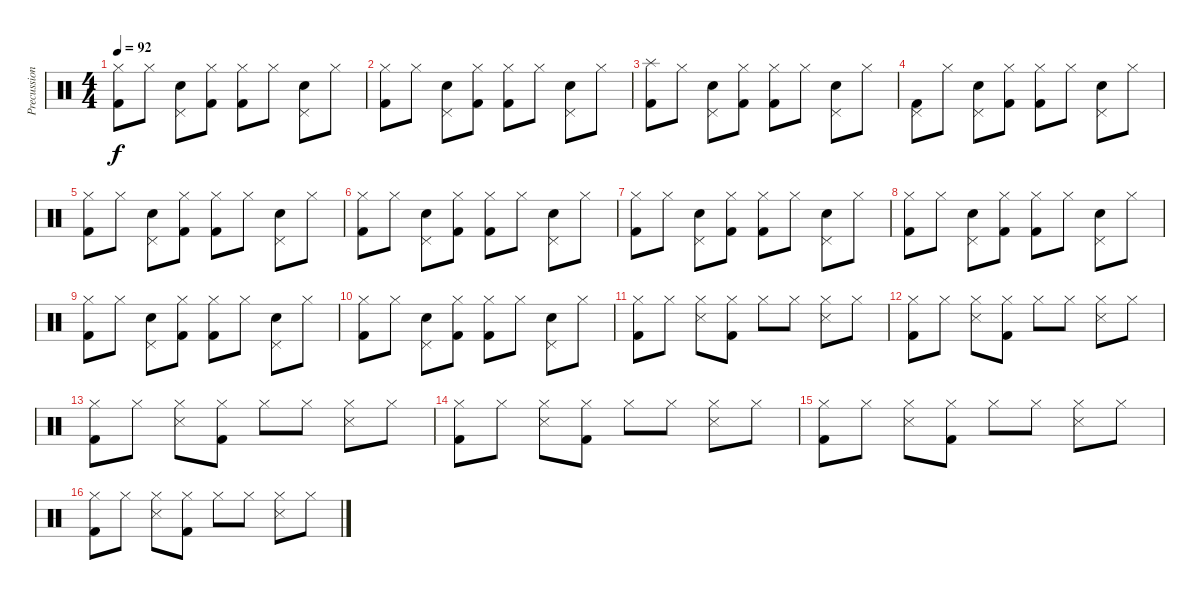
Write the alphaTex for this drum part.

\track ("Precussion" "Precussion") {instrument percussion}
\staff {score}
\articulation defaults
\ts (4 4)
\tempo 92
\clef neutral
\ks c
("Hi-Hat (closed)" "Kick (hit) 2").8{dy f} "Hi-Hat (closed)".8 ("Pedal Hi-Hat (hit)" "Snare (hit) 2").8 ("Hi-Hat (closed)" "Kick (hit) 2").8 ("Hi-Hat (closed)" "Kick (hit) 2").8 "Hi-Hat (closed)".8 ("Pedal Hi-Hat (hit)" "Snare (hit) 2").8 "Hi-Hat (closed)".8 |
("Hi-Hat (closed)" "Kick (hit) 2").8 "Hi-Hat (closed)".8 ("Pedal Hi-Hat (hit)" "Snare (hit) 2").8 ("Hi-Hat (closed)" "Kick (hit) 2").8 ("Hi-Hat (closed)" "Kick (hit) 2").8 "Hi-Hat (closed)".8 ("Pedal Hi-Hat (hit)" "Snare (hit) 2").8 "Hi-Hat (closed)".8 |
("Splash (hit)" "Kick (hit) 2").8 "Hi-Hat (closed)".8 ("Pedal Hi-Hat (hit)" "Snare (hit) 2").8 ("Hi-Hat (closed)" "Kick (hit) 2").8 ("Hi-Hat (closed)" "Kick (hit) 2").8 "Hi-Hat (closed)".8 ("Pedal Hi-Hat (hit)" "Snare (hit) 2").8 "Hi-Hat (closed)".8 |
("Pedal Hi-Hat (hit)" "Kick (hit) 2").8 "Hi-Hat (closed)".8 ("Pedal Hi-Hat (hit)" "Snare (hit) 2").8 ("Hi-Hat (closed)" "Kick (hit) 2").8 ("Hi-Hat (closed)" "Kick (hit) 2").8 "Hi-Hat (closed)".8 ("Pedal Hi-Hat (hit)" "Snare (hit) 2").8 "Hi-Hat (closed)".8 |
("Hi-Hat (closed)" "Kick (hit) 2").8 "Hi-Hat (closed)".8 ("Pedal Hi-Hat (hit)" "Snare (hit) 2").8 ("Hi-Hat (closed)" "Kick (hit) 2").8 ("Hi-Hat (closed)" "Kick (hit) 2").8 "Hi-Hat (closed)".8 ("Pedal Hi-Hat (hit)" "Snare (hit) 2").8 "Hi-Hat (closed)".8 |
("Hi-Hat (closed)" "Kick (hit) 2").8 "Hi-Hat (closed)".8 ("Pedal Hi-Hat (hit)" "Snare (hit) 2").8 ("Hi-Hat (closed)" "Kick (hit) 2").8 ("Hi-Hat (closed)" "Kick (hit) 2").8 "Hi-Hat (closed)".8 ("Pedal Hi-Hat (hit)" "Snare (hit) 2").8 "Hi-Hat (closed)".8 |
("Hi-Hat (closed)" "Kick (hit) 2").8 "Hi-Hat (closed)".8 ("Pedal Hi-Hat (hit)" "Snare (hit) 2").8 ("Hi-Hat (closed)" "Kick (hit) 2").8 ("Hi-Hat (closed)" "Kick (hit) 2").8 "Hi-Hat (closed)".8 ("Pedal Hi-Hat (hit)" "Snare (hit) 2").8 "Hi-Hat (closed)".8 |
("Hi-Hat (closed)" "Kick (hit) 2").8 "Hi-Hat (closed)".8 ("Pedal Hi-Hat (hit)" "Snare (hit) 2").8 ("Hi-Hat (closed)" "Kick (hit) 2").8 ("Hi-Hat (closed)" "Kick (hit) 2").8 "Hi-Hat (closed)".8 ("Pedal Hi-Hat (hit)" "Snare (hit) 2").8 "Hi-Hat (closed)".8 |
("Hi-Hat (closed)" "Kick (hit) 2").8 "Hi-Hat (closed)".8 ("Pedal Hi-Hat (hit)" "Snare (hit) 2").8 ("Hi-Hat (closed)" "Kick (hit) 2").8 ("Hi-Hat (closed)" "Kick (hit) 2").8 "Hi-Hat (closed)".8 ("Pedal Hi-Hat (hit)" "Snare (hit) 2").8 "Hi-Hat (closed)".8 |
("Hi-Hat (closed)" "Kick (hit) 2").8 "Hi-Hat (closed)".8 ("Pedal Hi-Hat (hit)" "Snare (hit) 2").8 ("Hi-Hat (closed)" "Kick (hit) 2").8 ("Hi-Hat (closed)" "Kick (hit) 2").8 "Hi-Hat (closed)".8 ("Pedal Hi-Hat (hit)" "Snare (hit) 2").8 "Hi-Hat (closed)".8 |
("Hi-Hat (closed)" "Kick (hit) 2").8 "Hi-Hat (closed)".8 ("Hi-Hat (closed)" "Snare (side stick) 3").8 ("Hi-Hat (closed)" "Kick (hit) 2").8 "Hi-Hat (closed)".8 "Hi-Hat (closed)".8 ("Hi-Hat (closed)" "Snare (side stick) 3").8 "Hi-Hat (closed)".8 |
("Hi-Hat (closed)" "Kick (hit) 2").8 "Hi-Hat (closed)".8 ("Hi-Hat (closed)" "Snare (side stick) 3").8 ("Hi-Hat (closed)" "Kick (hit) 2").8 "Hi-Hat (closed)".8 "Hi-Hat (closed)".8 ("Hi-Hat (closed)" "Snare (side stick) 3").8 "Hi-Hat (closed)".8 |
("Hi-Hat (closed)" "Kick (hit) 2").8 "Hi-Hat (closed)".8 ("Hi-Hat (closed)" "Snare (side stick) 3").8 ("Hi-Hat (closed)" "Kick (hit) 2").8 "Hi-Hat (closed)".8 "Hi-Hat (closed)".8 ("Hi-Hat (closed)" "Snare (side stick) 3").8 "Hi-Hat (closed)".8 |
("Hi-Hat (closed)" "Kick (hit) 2").8 "Hi-Hat (closed)".8 ("Hi-Hat (closed)" "Snare (side stick) 3").8 ("Hi-Hat (closed)" "Kick (hit) 2").8 "Hi-Hat (closed)".8 "Hi-Hat (closed)".8 ("Hi-Hat (closed)" "Snare (side stick) 3").8 "Hi-Hat (closed)".8 |
("Hi-Hat (closed)" "Kick (hit) 2").8 "Hi-Hat (closed)".8 ("Hi-Hat (closed)" "Snare (side stick) 3").8 ("Hi-Hat (closed)" "Kick (hit) 2").8 "Hi-Hat (closed)".8 "Hi-Hat (closed)".8 ("Hi-Hat (closed)" "Snare (side stick) 3").8 "Hi-Hat (closed)".8 |
("Hi-Hat (closed)" "Kick (hit) 2").8 "Hi-Hat (closed)".8 ("Hi-Hat (closed)" "Snare (side stick) 3").8 ("Hi-Hat (closed)" "Kick (hit) 2").8 "Hi-Hat (closed)".8 "Hi-Hat (closed)".8 ("Hi-Hat (closed)" "Snare (side stick) 3").8 "Hi-Hat (closed)".8
